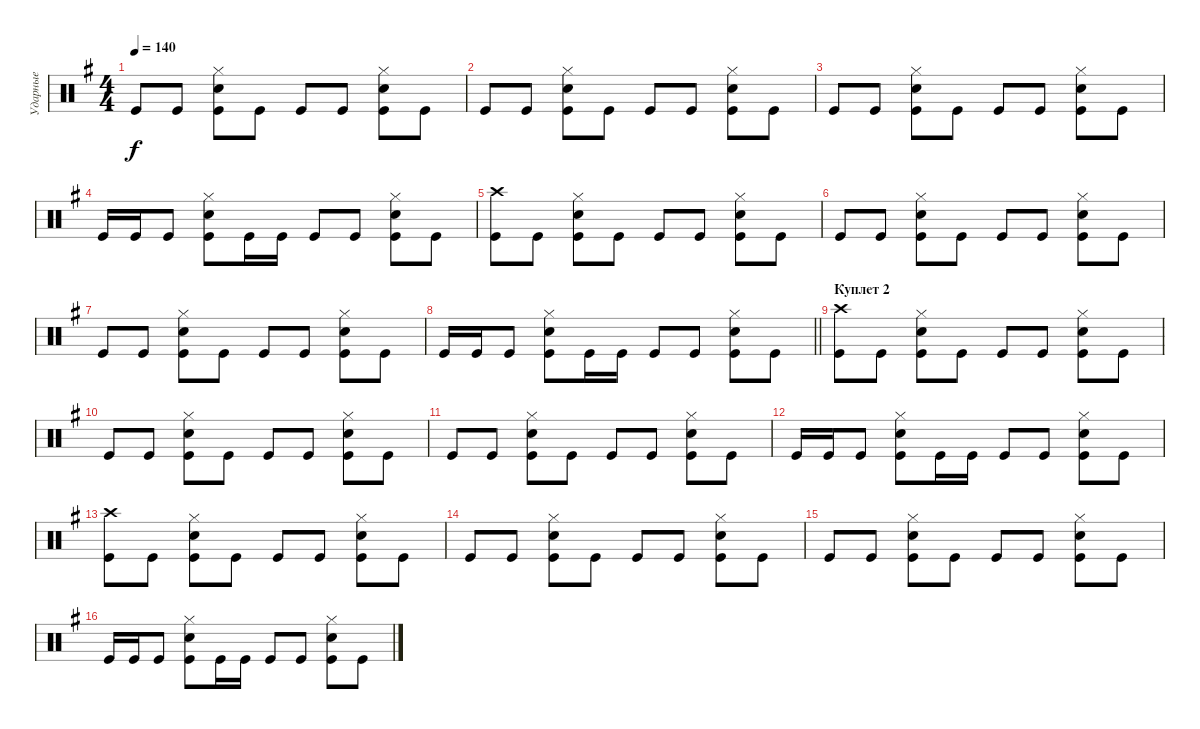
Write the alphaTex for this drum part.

\track ("Ударные" "Ударные") {instrument percussion}
\staff {score}
\articulation defaults
\ts (4 4)
\tempo 140
\clef neutral
\ks g "Kick (hit)".8{dy f} "Kick (hit)".8
("Kick (hit)" "Snare (hit) 2" "Hi-Hat (closed)").8 "Kick (hit)".8 "Kick (hit)".8 "Kick (hit)".8 ("Kick (hit)" "Snare (hit) 2" "Hi-Hat (closed)").8 "Kick (hit)".8 |
"Kick (hit)".8 "Kick (hit)".8 ("Kick (hit)" "Snare (hit) 2" "Hi-Hat (closed)").8 "Kick (hit)".8 "Kick (hit)".8 "Kick (hit)".8 ("Kick (hit)" "Snare (hit) 2" "Hi-Hat (closed)").8 "Kick (hit)".8 |
"Kick (hit)".8 "Kick (hit)".8 ("Kick (hit)" "Snare (hit) 2" "Hi-Hat (closed)").8 "Kick (hit)".8 "Kick (hit)".8 "Kick (hit)".8 ("Kick (hit)" "Snare (hit) 2" "Hi-Hat (closed)").8 "Kick (hit)".8 |
"Kick (hit)".16 "Kick (hit)".16 "Kick (hit)".8 ("Kick (hit)" "Snare (hit) 2" "Hi-Hat (closed)").8 "Kick (hit)".16 "Kick (hit)".16 "Kick (hit)".8 "Kick (hit)".8 ("Kick (hit)" "Snare (hit) 2" "Hi-Hat (closed)").8 "Kick (hit)".8 |
("Kick (hit)" "Crash high (hit)").8 "Kick (hit)".8 ("Kick (hit)" "Snare (hit) 2" "Hi-Hat (closed)").8 "Kick (hit)".8 "Kick (hit)".8 "Kick (hit)".8 ("Kick (hit)" "Snare (hit) 2" "Hi-Hat (closed)").8 "Kick (hit)".8 |
"Kick (hit)".8 "Kick (hit)".8 ("Kick (hit)" "Snare (hit) 2" "Hi-Hat (closed)").8 "Kick (hit)".8 "Kick (hit)".8 "Kick (hit)".8 ("Kick (hit)" "Snare (hit) 2" "Hi-Hat (closed)").8 "Kick (hit)".8 |
"Kick (hit)".8 "Kick (hit)".8 ("Kick (hit)" "Snare (hit) 2" "Hi-Hat (closed)").8 "Kick (hit)".8 "Kick (hit)".8 "Kick (hit)".8 ("Kick (hit)" "Snare (hit) 2" "Hi-Hat (closed)").8 "Kick (hit)".8 |
\barLineRight lightlight "Kick (hit)".16 "Kick (hit)".16 "Kick (hit)".8
("Kick (hit)" "Snare (hit) 2" "Hi-Hat (closed)").8 "Kick (hit)".16 "Kick (hit)".16 "Kick (hit)".8 "Kick (hit)".8 ("Kick (hit)" "Snare (hit) 2" "Hi-Hat (closed)").8 "Kick (hit)".8 |
\section ("" "Куплет 2")
("Kick (hit)" "Crash high (hit)").8 "Kick (hit)".8 ("Kick (hit)" "Snare (hit) 2" "Hi-Hat (closed)").8 "Kick (hit)".8 "Kick (hit)".8 "Kick (hit)".8 ("Kick (hit)" "Snare (hit) 2" "Hi-Hat (closed)").8 "Kick (hit)".8 |
"Kick (hit)".8 "Kick (hit)".8 ("Kick (hit)" "Snare (hit) 2" "Hi-Hat (closed)").8 "Kick (hit)".8 "Kick (hit)".8 "Kick (hit)".8 ("Kick (hit)" "Snare (hit) 2" "Hi-Hat (closed)").8 "Kick (hit)".8 |
"Kick (hit)".8 "Kick (hit)".8 ("Kick (hit)" "Snare (hit) 2" "Hi-Hat (closed)").8 "Kick (hit)".8 "Kick (hit)".8 "Kick (hit)".8 ("Kick (hit)" "Snare (hit) 2" "Hi-Hat (closed)").8 "Kick (hit)".8 |
"Kick (hit)".16 "Kick (hit)".16 "Kick (hit)".8 ("Kick (hit)" "Snare (hit) 2" "Hi-Hat (closed)").8 "Kick (hit)".16 "Kick (hit)".16 "Kick (hit)".8 "Kick (hit)".8 ("Kick (hit)" "Snare (hit) 2" "Hi-Hat (closed)").8 "Kick (hit)".8 |
("Kick (hit)" "Crash high (hit)").8 "Kick (hit)".8 ("Kick (hit)" "Snare (hit) 2" "Hi-Hat (closed)").8 "Kick (hit)".8 "Kick (hit)".8 "Kick (hit)".8 ("Kick (hit)" "Snare (hit) 2" "Hi-Hat (closed)").8 "Kick (hit)".8 |
"Kick (hit)".8 "Kick (hit)".8 ("Kick (hit)" "Snare (hit) 2" "Hi-Hat (closed)").8 "Kick (hit)".8 "Kick (hit)".8 "Kick (hit)".8 ("Kick (hit)" "Snare (hit) 2" "Hi-Hat (closed)").8 "Kick (hit)".8 |
"Kick (hit)".8 "Kick (hit)".8 ("Kick (hit)" "Snare (hit) 2" "Hi-Hat (closed)").8 "Kick (hit)".8 "Kick (hit)".8 "Kick (hit)".8 ("Kick (hit)" "Snare (hit) 2" "Hi-Hat (closed)").8 "Kick (hit)".8 |
"Kick (hit)".16 "Kick (hit)".16 "Kick (hit)".8 ("Kick (hit)" "Snare (hit) 2" "Hi-Hat (closed)").8 "Kick (hit)".16 "Kick (hit)".16 "Kick (hit)".8 "Kick (hit)".8 ("Kick (hit)" "Snare (hit) 2" "Hi-Hat (closed)").8 "Kick (hit)".8
